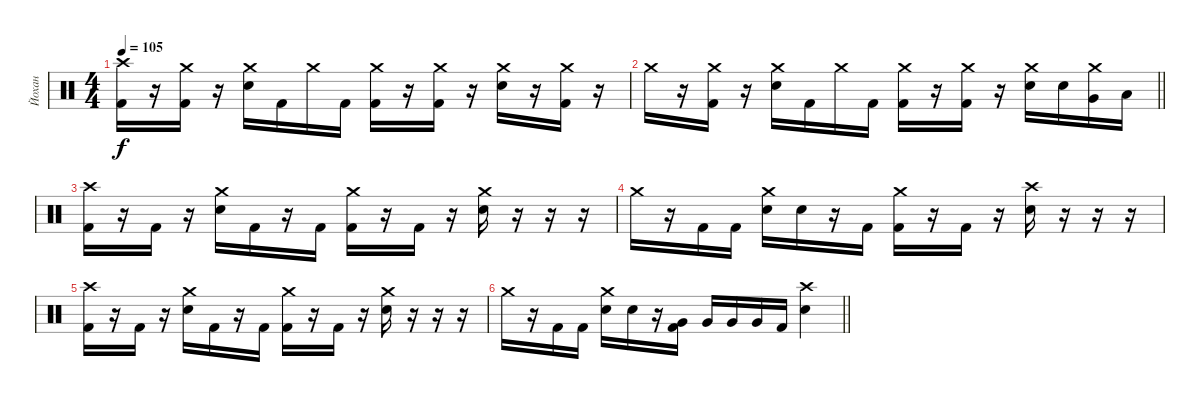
\track ("Йохан" "Йохан") {instrument percussion}
\staff {score}
\articulation defaults
\ts (4 4)
\tempo 105
\clef neutral
\ks c
("Crash high (hit)" "Kick (hit) 2").16{dy f} r.16 ("Crash medium (hit)" "Kick (hit) 2").16 r.16 ("Crash medium (hit)" "Snare (hit) 2").16 "Kick (hit) 2".16 "Crash medium (hit)".16 "Kick (hit) 2".16 ("Crash medium (hit)" "Kick (hit) 2").16 r.16 ("Crash medium (hit)" "Kick (hit) 2").16 r.16 ("Crash medium (hit)" "Snare (hit) 2").16 r.16 ("Crash medium (hit)" "Kick (hit) 2").16 r.16 |
\barLineRight lightlight "Crash medium (hit)".16
r.16 ("Crash medium (hit)" "Kick (hit) 2").16 r.16 ("Crash medium (hit)" "Snare (hit) 2").16 "Kick (hit) 2".16 "Crash medium (hit)".16 "Kick (hit) 2".16 ("Crash medium (hit)" "Kick (hit) 2").16 r.16 ("Crash medium (hit)" "Kick (hit) 2").16 r.16 ("Crash medium (hit)" "Snare (hit) 2").16 "Snare (hit) 2".16 ("Crash medium (hit)" "Very Low Tom (hit)").16 "Low Tom (hit)".16 |
("Crash high (hit)" "Kick (hit) 2").16 r.16 "Kick (hit) 2".16 r.16 ("Crash medium (hit)" "Snare (hit) 2").16 "Kick (hit) 2".16 r.16 "Kick (hit) 2".16 ("Crash medium (hit)" "Kick (hit) 2").16 r.16 "Kick (hit) 2".16 r.16 ("Crash medium (hit)" "Snare (hit) 2").16 r.16 r.16 r.16 |
"Crash medium (hit)".16 r.16 "Kick (hit) 2".16 "Kick (hit) 2".16 ("Crash medium (hit)" "Snare (hit) 2").16 "Snare (hit) 2".16 r.16 "Kick (hit) 2".16 ("Crash medium (hit)" "Kick (hit) 2").16 r.16 "Kick (hit) 2".16 r.16 ("Crash high (hit)" "Snare (hit) 2").16 r.16 r.16 r.16 |
("Crash high (hit)" "Kick (hit) 2").16 r.16 "Kick (hit) 2".16 r.16 ("Crash medium (hit)" "Snare (hit) 2").16 "Kick (hit) 2".16 r.16 "Kick (hit) 2".16 ("Crash medium (hit)" "Kick (hit) 2").16 r.16 "Kick (hit) 2".16 r.16 ("Crash medium (hit)" "Snare (hit) 2").16 r.16 r.16 r.16 |
\barLineRight lightlight "Crash medium (hit)".16
r.16 "Kick (hit) 2".16 "Kick (hit) 2".16 ("Crash medium (hit)" "Snare (hit) 2").16 "Snare (hit) 2".16 r.16 ("Very Low Tom (hit)" "Kick (hit) 2").16 "Very Low Tom (hit)".16 "Very Low Tom (hit)".16 "Very Low Tom (hit)".16 "Kick (hit) 2".16 ("Crash high (hit)" "Snare (hit) 2").4
